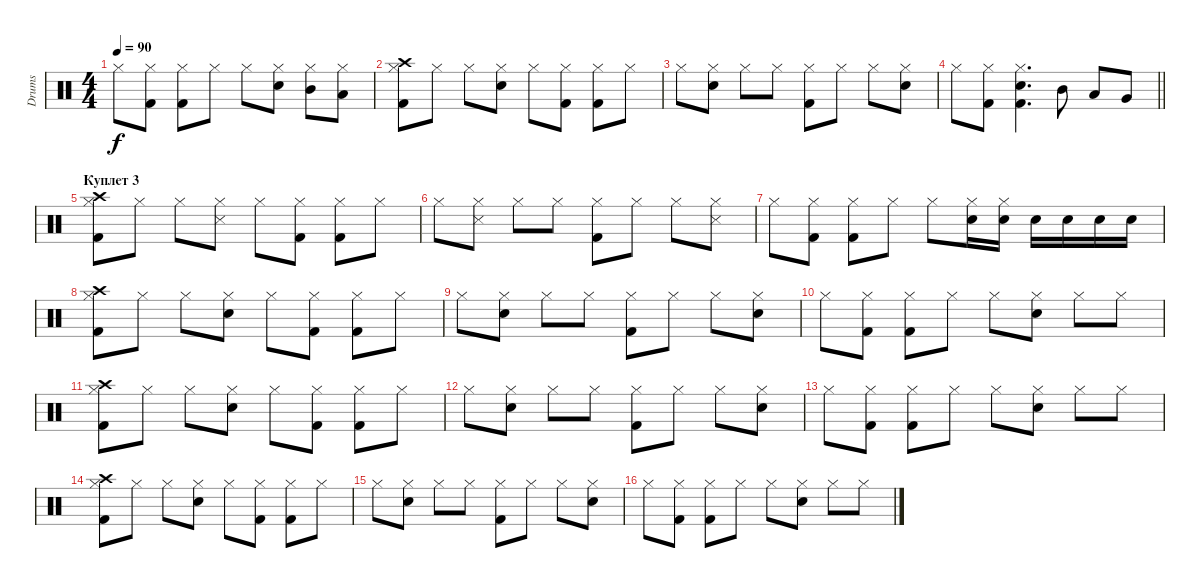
\track ("Drums" "Drums") {instrument percussion}
\staff {score}
\articulation defaults
\ts (4 4)
\tempo 90
\clef neutral
\ks c "Hi-Hat (closed)".8{dy f}
("Hi-Hat (closed)" "Kick (hit) 2").8 ("Hi-Hat (closed)" "Kick (hit) 2").8 "Hi-Hat (closed)".8 "Hi-Hat (closed)".8 ("Hi-Hat (closed)" "Electric Snare (hit)").8 ("Hi-Hat (closed)" "Mid Tom (hit)").8 ("Hi-Hat (closed)" "Low Tom (hit)").8 |
("Hi-Hat (closed)" "Kick (hit) 2" "Crash high (hit)").8 "Hi-Hat (closed)".8 "Hi-Hat (closed)".8 ("Hi-Hat (closed)" "Electric Snare (hit)").8 "Hi-Hat (closed)".8 ("Hi-Hat (closed)" "Kick (hit) 2").8 ("Hi-Hat (closed)" "Kick (hit) 2").8 "Hi-Hat (closed)".8 |
"Hi-Hat (closed)".8 ("Hi-Hat (closed)" "Electric Snare (hit)").8 "Hi-Hat (closed)".8 "Hi-Hat (closed)".8 ("Hi-Hat (closed)" "Kick (hit) 2").8 "Hi-Hat (closed)".8 "Hi-Hat (closed)".8 ("Hi-Hat (closed)" "Electric Snare (hit)").8 |
\barLineRight lightlight "Hi-Hat (closed)".8
("Hi-Hat (closed)" "Kick (hit) 2").8 ("Hi-Hat (closed)" "Kick (hit) 2" "Electric Snare (hit)").4{d} "Mid Tom (hit)".8 "Low Tom (hit)".8 "Very Low Tom (hit)".8 |
\section ("" "Куплет 3")
("Hi-Hat (closed)" "Kick (hit) 2" "Crash high (hit)").8 "Hi-Hat (closed)".8 "Hi-Hat (closed)".8 ("Hi-Hat (closed)" "Metronome (hit)").8 "Hi-Hat (closed)".8 ("Hi-Hat (closed)" "Kick (hit) 2").8 ("Hi-Hat (closed)" "Kick (hit) 2").8 "Hi-Hat (closed)".8 |
"Hi-Hat (closed)".8 ("Hi-Hat (closed)" "Metronome (hit)").8 "Hi-Hat (closed)".8 "Hi-Hat (closed)".8 ("Hi-Hat (closed)" "Kick (hit) 2").8 "Hi-Hat (closed)".8 "Hi-Hat (closed)".8 ("Hi-Hat (closed)" "Metronome (hit)").8 |
"Hi-Hat (closed)".8 ("Hi-Hat (closed)" "Kick (hit) 2").8 ("Hi-Hat (closed)" "Kick (hit) 2").8 "Hi-Hat (closed)".8 "Hi-Hat (closed)".8 ("Hi-Hat (closed)" "Electric Snare (hit)").16 ("Hi-Hat (closed)" "Electric Snare (hit)").16 "Electric Snare (hit)".16 "Electric Snare (hit)".16 "Electric Snare (hit)".16 "Electric Snare (hit)".16 |
("Hi-Hat (closed)" "Kick (hit) 2" "Crash high (hit)").8 "Hi-Hat (closed)".8 "Hi-Hat (closed)".8 ("Hi-Hat (closed)" "Electric Snare (hit)").8 "Hi-Hat (closed)".8 ("Hi-Hat (closed)" "Kick (hit) 2").8 ("Hi-Hat (closed)" "Kick (hit) 2").8 "Hi-Hat (closed)".8 |
"Hi-Hat (closed)".8 ("Hi-Hat (closed)" "Electric Snare (hit)").8 "Hi-Hat (closed)".8 "Hi-Hat (closed)".8 ("Hi-Hat (closed)" "Kick (hit) 2").8 "Hi-Hat (closed)".8 "Hi-Hat (closed)".8 ("Hi-Hat (closed)" "Electric Snare (hit)").8 |
"Hi-Hat (closed)".8 ("Hi-Hat (closed)" "Kick (hit) 2").8 ("Hi-Hat (closed)" "Kick (hit) 2").8 "Hi-Hat (closed)".8 "Hi-Hat (closed)".8 ("Hi-Hat (closed)" "Electric Snare (hit)").8 "Hi-Hat (closed)".8 "Hi-Hat (closed)".8 |
("Hi-Hat (closed)" "Kick (hit) 2" "Crash high (hit)").8 "Hi-Hat (closed)".8 "Hi-Hat (closed)".8 ("Hi-Hat (closed)" "Electric Snare (hit)").8 "Hi-Hat (closed)".8 ("Hi-Hat (closed)" "Kick (hit) 2").8 ("Hi-Hat (closed)" "Kick (hit) 2").8 "Hi-Hat (closed)".8 |
"Hi-Hat (closed)".8 ("Hi-Hat (closed)" "Electric Snare (hit)").8 "Hi-Hat (closed)".8 "Hi-Hat (closed)".8 ("Hi-Hat (closed)" "Kick (hit) 2").8 "Hi-Hat (closed)".8 "Hi-Hat (closed)".8 ("Hi-Hat (closed)" "Electric Snare (hit)").8 |
"Hi-Hat (closed)".8 ("Hi-Hat (closed)" "Kick (hit) 2").8 ("Hi-Hat (closed)" "Kick (hit) 2").8 "Hi-Hat (closed)".8 "Hi-Hat (closed)".8 ("Hi-Hat (closed)" "Electric Snare (hit)").8 "Hi-Hat (closed)".8 "Hi-Hat (closed)".8 |
("Hi-Hat (closed)" "Kick (hit) 2" "Crash high (hit)").8 "Hi-Hat (closed)".8 "Hi-Hat (closed)".8 ("Hi-Hat (closed)" "Electric Snare (hit)").8 "Hi-Hat (closed)".8 ("Hi-Hat (closed)" "Kick (hit) 2").8 ("Hi-Hat (closed)" "Kick (hit) 2").8 "Hi-Hat (closed)".8 |
"Hi-Hat (closed)".8 ("Hi-Hat (closed)" "Electric Snare (hit)").8 "Hi-Hat (closed)".8 "Hi-Hat (closed)".8 ("Hi-Hat (closed)" "Kick (hit) 2").8 "Hi-Hat (closed)".8 "Hi-Hat (closed)".8 ("Hi-Hat (closed)" "Electric Snare (hit)").8 |
"Hi-Hat (closed)".8 ("Hi-Hat (closed)" "Kick (hit) 2").8 ("Hi-Hat (closed)" "Kick (hit) 2").8 "Hi-Hat (closed)".8 "Hi-Hat (closed)".8 ("Hi-Hat (closed)" "Electric Snare (hit)").8 "Hi-Hat (closed)".8 "Hi-Hat (closed)".8
